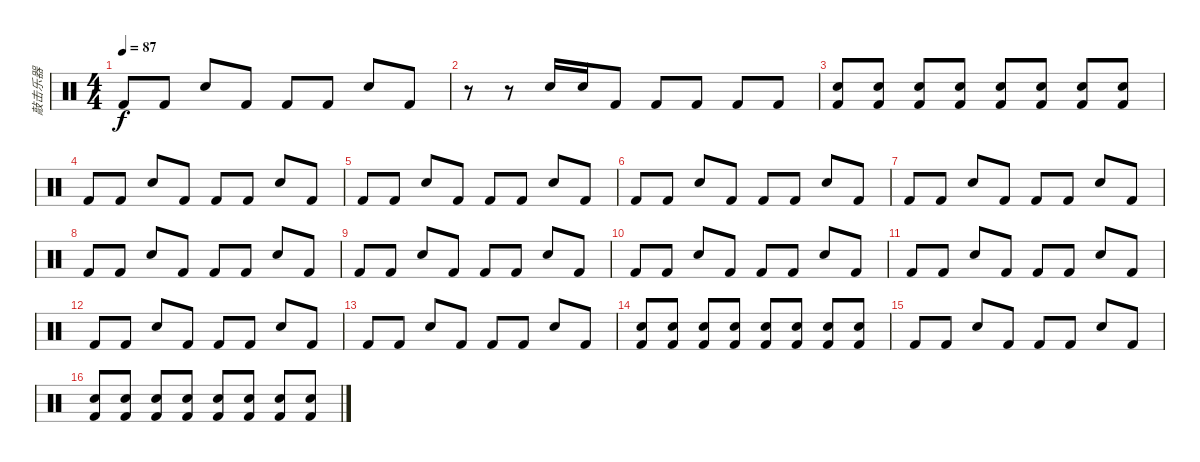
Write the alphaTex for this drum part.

\track ("敲击乐器" "敲击乐器") {instrument percussion}
\staff {score}
\articulation defaults
\ts (4 4)
\tempo 87
\clef neutral
\ks c "Kick (hit) 2".8{dy f} "Kick (hit) 2".8 "Snare (hit) 2".8 "Kick (hit) 2".8 "Kick (hit) 2".8 "Kick (hit) 2".8 "Snare (hit) 2".8 "Kick (hit) 2".8
|
r.8 r.8 "Electric Snare (hit)".16 "Electric Snare (hit)".16 "Kick (hit) 2".8 "Kick (hit) 2".8 "Kick (hit) 2".8 "Kick (hit) 2".8 "Kick (hit) 2".8 |
("Kick (hit) 2" "Snare (hit) 2").8 ("Kick (hit) 2" "Snare (hit) 2").8 ("Kick (hit) 2" "Snare (hit) 2").8 ("Kick (hit) 2" "Snare (hit) 2").8 ("Kick (hit) 2" "Snare (hit) 2").8 ("Kick (hit) 2" "Snare (hit) 2").8 ("Kick (hit) 2" "Snare (hit) 2").8 ("Kick (hit) 2" "Snare (hit) 2").8 |
"Kick (hit) 2".8 "Kick (hit) 2".8 "Snare (hit) 2".8 "Kick (hit) 2".8 "Kick (hit) 2".8 "Kick (hit) 2".8 "Snare (hit) 2".8 "Kick (hit) 2".8 |
"Kick (hit) 2".8 "Kick (hit) 2".8 "Snare (hit) 2".8 "Kick (hit) 2".8 "Kick (hit) 2".8 "Kick (hit) 2".8 "Snare (hit) 2".8 "Kick (hit) 2".8 |
"Kick (hit) 2".8 "Kick (hit) 2".8 "Snare (hit) 2".8 "Kick (hit) 2".8 "Kick (hit) 2".8 "Kick (hit) 2".8 "Snare (hit) 2".8 "Kick (hit) 2".8 |
"Kick (hit) 2".8 "Kick (hit) 2".8 "Snare (hit) 2".8 "Kick (hit) 2".8 "Kick (hit) 2".8 "Kick (hit) 2".8 "Snare (hit) 2".8 "Kick (hit) 2".8 |
"Kick (hit) 2".8 "Kick (hit) 2".8 "Snare (hit) 2".8 "Kick (hit) 2".8 "Kick (hit) 2".8 "Kick (hit) 2".8 "Snare (hit) 2".8 "Kick (hit) 2".8 |
"Kick (hit) 2".8 "Kick (hit) 2".8 "Snare (hit) 2".8 "Kick (hit) 2".8 "Kick (hit) 2".8 "Kick (hit) 2".8 "Snare (hit) 2".8 "Kick (hit) 2".8 |
"Kick (hit) 2".8 "Kick (hit) 2".8 "Snare (hit) 2".8 "Kick (hit) 2".8 "Kick (hit) 2".8 "Kick (hit) 2".8 "Snare (hit) 2".8 "Kick (hit) 2".8 |
"Kick (hit) 2".8 "Kick (hit) 2".8 "Snare (hit) 2".8 "Kick (hit) 2".8 "Kick (hit) 2".8 "Kick (hit) 2".8 "Snare (hit) 2".8 "Kick (hit) 2".8 |
"Kick (hit) 2".8 "Kick (hit) 2".8 "Snare (hit) 2".8 "Kick (hit) 2".8 "Kick (hit) 2".8 "Kick (hit) 2".8 "Snare (hit) 2".8 "Kick (hit) 2".8 |
"Kick (hit) 2".8 "Kick (hit) 2".8 "Snare (hit) 2".8 "Kick (hit) 2".8 "Kick (hit) 2".8 "Kick (hit) 2".8 "Snare (hit) 2".8 "Kick (hit) 2".8 |
("Kick (hit) 2" "Snare (hit) 2").8 ("Kick (hit) 2" "Snare (hit) 2").8 ("Kick (hit) 2" "Snare (hit) 2").8 ("Kick (hit) 2" "Snare (hit) 2").8 ("Kick (hit) 2" "Snare (hit) 2").8 ("Kick (hit) 2" "Snare (hit) 2").8 ("Kick (hit) 2" "Snare (hit) 2").8 ("Kick (hit) 2" "Snare (hit) 2").8 |
"Kick (hit) 2".8 "Kick (hit) 2".8 "Snare (hit) 2".8 "Kick (hit) 2".8 "Kick (hit) 2".8 "Kick (hit) 2".8 "Snare (hit) 2".8 "Kick (hit) 2".8 |
("Kick (hit) 2" "Snare (hit) 2").8 ("Kick (hit) 2" "Snare (hit) 2").8 ("Kick (hit) 2" "Snare (hit) 2").8 ("Kick (hit) 2" "Snare (hit) 2").8 ("Kick (hit) 2" "Snare (hit) 2").8 ("Kick (hit) 2" "Snare (hit) 2").8 ("Kick (hit) 2" "Snare (hit) 2").8 ("Kick (hit) 2" "Snare (hit) 2").8
